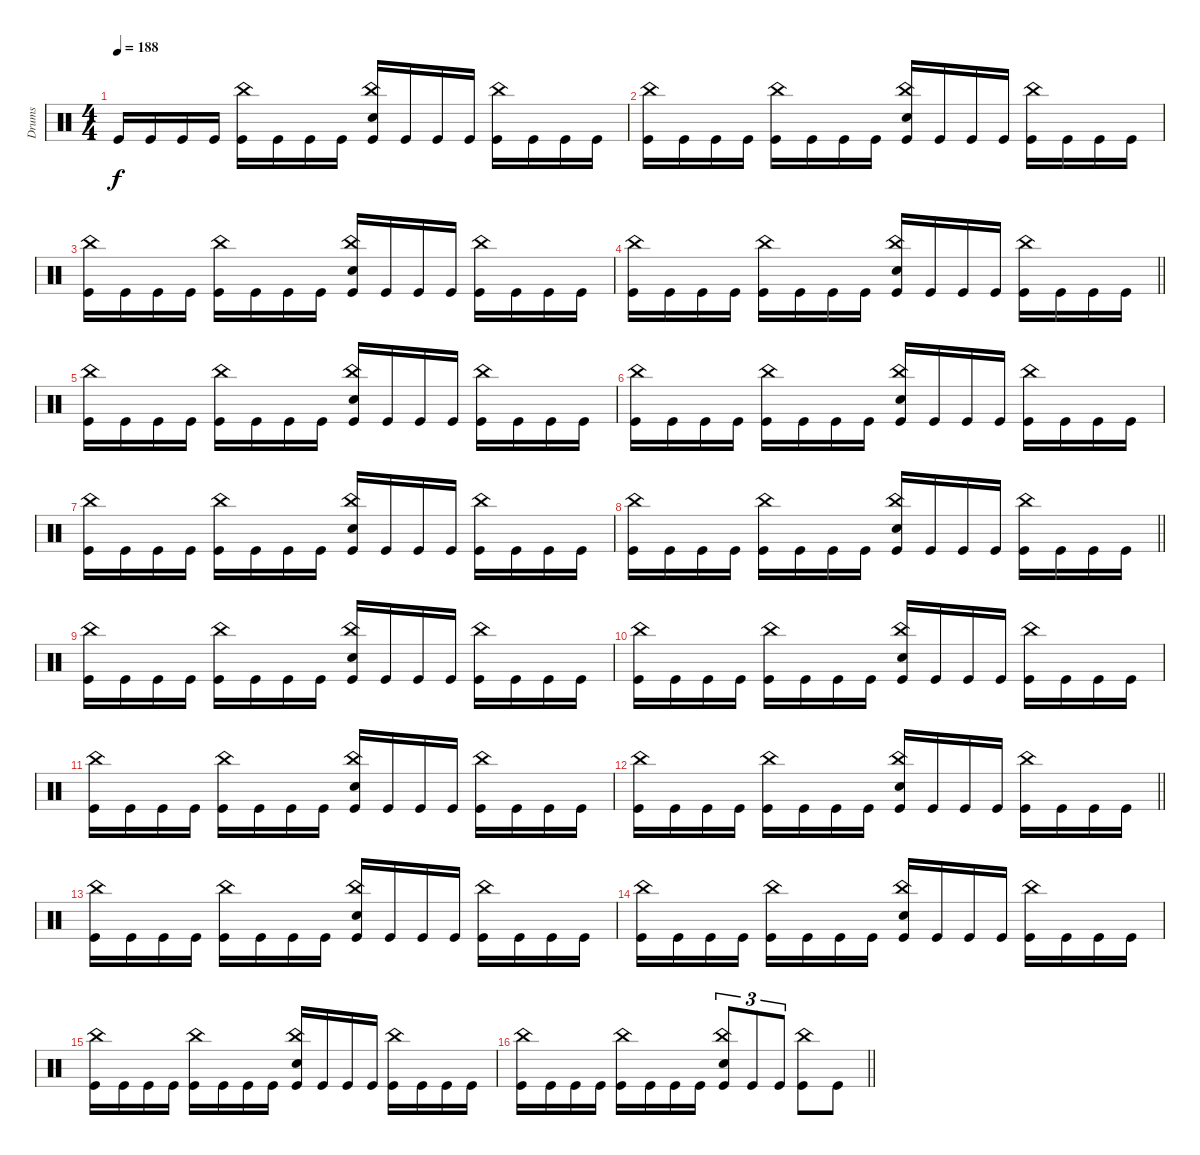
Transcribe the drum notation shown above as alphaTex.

\track ("Drums" "Drums") {instrument percussion}
\staff
\articulation defaults
\ts (4 4)
\section ("" "")
\tempo 188
\clef neutral
\ks c "Kick (hit)".16{dy f} "Kick (hit)".16 "Kick (hit)".16 "Kick (hit)".16
("China (hit)" "Kick (hit)").16 "Kick (hit)".16 "Kick (hit)".16 "Kick (hit)".16 ("China (hit)" "Electric Snare (hit)" "Kick (hit)").16 "Kick (hit)".16 "Kick (hit)".16 "Kick (hit)".16 ("China (hit)" "Kick (hit)").16 "Kick (hit)".16 "Kick (hit)".16 "Kick (hit)".16 |
("China (hit)" "Kick (hit)").16 "Kick (hit)".16 "Kick (hit)".16 "Kick (hit)".16 ("China (hit)" "Kick (hit)").16 "Kick (hit)".16 "Kick (hit)".16 "Kick (hit)".16 ("China (hit)" "Electric Snare (hit)" "Kick (hit)").16 "Kick (hit)".16 "Kick (hit)".16 "Kick (hit)".16 ("China (hit)" "Kick (hit)").16 "Kick (hit)".16 "Kick (hit)".16 "Kick (hit)".16 |
("China (hit)" "Kick (hit)").16 "Kick (hit)".16 "Kick (hit)".16 "Kick (hit)".16 ("China (hit)" "Kick (hit)").16 "Kick (hit)".16 "Kick (hit)".16 "Kick (hit)".16 ("China (hit)" "Electric Snare (hit)" "Kick (hit)").16 "Kick (hit)".16 "Kick (hit)".16 "Kick (hit)".16 ("China (hit)" "Kick (hit)").16 "Kick (hit)".16 "Kick (hit)".16 "Kick (hit)".16 |
\barLineRight lightlight
("China (hit)" "Kick (hit)").16 "Kick (hit)".16 "Kick (hit)".16 "Kick (hit)".16 ("China (hit)" "Kick (hit)").16 "Kick (hit)".16 "Kick (hit)".16 "Kick (hit)".16 ("China (hit)" "Electric Snare (hit)" "Kick (hit)").16 "Kick (hit)".16 "Kick (hit)".16 "Kick (hit)".16 ("China (hit)" "Kick (hit)").16 "Kick (hit)".16 "Kick (hit)".16 "Kick (hit)".16 |
("China (hit)" "Kick (hit)").16 "Kick (hit)".16 "Kick (hit)".16 "Kick (hit)".16 ("China (hit)" "Kick (hit)").16 "Kick (hit)".16 "Kick (hit)".16 "Kick (hit)".16 ("China (hit)" "Electric Snare (hit)" "Kick (hit)").16 "Kick (hit)".16 "Kick (hit)".16 "Kick (hit)".16 ("China (hit)" "Kick (hit)").16 "Kick (hit)".16 "Kick (hit)".16 "Kick (hit)".16 |
("China (hit)" "Kick (hit)").16 "Kick (hit)".16 "Kick (hit)".16 "Kick (hit)".16 ("China (hit)" "Kick (hit)").16 "Kick (hit)".16 "Kick (hit)".16 "Kick (hit)".16 ("China (hit)" "Electric Snare (hit)" "Kick (hit)").16 "Kick (hit)".16 "Kick (hit)".16 "Kick (hit)".16 ("China (hit)" "Kick (hit)").16 "Kick (hit)".16 "Kick (hit)".16 "Kick (hit)".16 |
("China (hit)" "Kick (hit)").16 "Kick (hit)".16 "Kick (hit)".16 "Kick (hit)".16 ("China (hit)" "Kick (hit)").16 "Kick (hit)".16 "Kick (hit)".16 "Kick (hit)".16 ("China (hit)" "Electric Snare (hit)" "Kick (hit)").16 "Kick (hit)".16 "Kick (hit)".16 "Kick (hit)".16 ("China (hit)" "Kick (hit)").16 "Kick (hit)".16 "Kick (hit)".16 "Kick (hit)".16 |
\barLineRight lightlight
("China (hit)" "Kick (hit)").16 "Kick (hit)".16 "Kick (hit)".16 "Kick (hit)".16 ("China (hit)" "Kick (hit)").16 "Kick (hit)".16 "Kick (hit)".16 "Kick (hit)".16 ("China (hit)" "Electric Snare (hit)" "Kick (hit)").16 "Kick (hit)".16 "Kick (hit)".16 "Kick (hit)".16 ("China (hit)" "Kick (hit)").16 "Kick (hit)".16 "Kick (hit)".16 "Kick (hit)".16 |
("China (hit)" "Kick (hit)").16 "Kick (hit)".16 "Kick (hit)".16 "Kick (hit)".16 ("China (hit)" "Kick (hit)").16 "Kick (hit)".16 "Kick (hit)".16 "Kick (hit)".16 ("China (hit)" "Electric Snare (hit)" "Kick (hit)").16 "Kick (hit)".16 "Kick (hit)".16 "Kick (hit)".16 ("China (hit)" "Kick (hit)").16 "Kick (hit)".16 "Kick (hit)".16 "Kick (hit)".16 |
("China (hit)" "Kick (hit)").16 "Kick (hit)".16 "Kick (hit)".16 "Kick (hit)".16 ("China (hit)" "Kick (hit)").16 "Kick (hit)".16 "Kick (hit)".16 "Kick (hit)".16 ("China (hit)" "Electric Snare (hit)" "Kick (hit)").16 "Kick (hit)".16 "Kick (hit)".16 "Kick (hit)".16 ("China (hit)" "Kick (hit)").16 "Kick (hit)".16 "Kick (hit)".16 "Kick (hit)".16 |
("China (hit)" "Kick (hit)").16 "Kick (hit)".16 "Kick (hit)".16 "Kick (hit)".16 ("China (hit)" "Kick (hit)").16 "Kick (hit)".16 "Kick (hit)".16 "Kick (hit)".16 ("China (hit)" "Electric Snare (hit)" "Kick (hit)").16 "Kick (hit)".16 "Kick (hit)".16 "Kick (hit)".16 ("China (hit)" "Kick (hit)").16 "Kick (hit)".16 "Kick (hit)".16 "Kick (hit)".16 |
\barLineRight lightlight
("China (hit)" "Kick (hit)").16 "Kick (hit)".16 "Kick (hit)".16 "Kick (hit)".16 ("China (hit)" "Kick (hit)").16 "Kick (hit)".16 "Kick (hit)".16 "Kick (hit)".16 ("China (hit)" "Electric Snare (hit)" "Kick (hit)").16 "Kick (hit)".16 "Kick (hit)".16 "Kick (hit)".16 ("China (hit)" "Kick (hit)").16 "Kick (hit)".16 "Kick (hit)".16 "Kick (hit)".16 |
("China (hit)" "Kick (hit)").16 "Kick (hit)".16 "Kick (hit)".16 "Kick (hit)".16 ("China (hit)" "Kick (hit)").16 "Kick (hit)".16 "Kick (hit)".16 "Kick (hit)".16 ("China (hit)" "Electric Snare (hit)" "Kick (hit)").16 "Kick (hit)".16 "Kick (hit)".16 "Kick (hit)".16 ("China (hit)" "Kick (hit)").16 "Kick (hit)".16 "Kick (hit)".16 "Kick (hit)".16 |
("China (hit)" "Kick (hit)").16 "Kick (hit)".16 "Kick (hit)".16 "Kick (hit)".16 ("China (hit)" "Kick (hit)").16 "Kick (hit)".16 "Kick (hit)".16 "Kick (hit)".16 ("China (hit)" "Electric Snare (hit)" "Kick (hit)").16 "Kick (hit)".16 "Kick (hit)".16 "Kick (hit)".16 ("China (hit)" "Kick (hit)").16 "Kick (hit)".16 "Kick (hit)".16 "Kick (hit)".16 |
("China (hit)" "Kick (hit)").16 "Kick (hit)".16 "Kick (hit)".16 "Kick (hit)".16 ("China (hit)" "Kick (hit)").16 "Kick (hit)".16 "Kick (hit)".16 "Kick (hit)".16 ("China (hit)" "Electric Snare (hit)" "Kick (hit)").16 "Kick (hit)".16 "Kick (hit)".16 "Kick (hit)".16 ("China (hit)" "Kick (hit)").16 "Kick (hit)".16 "Kick (hit)".16 "Kick (hit)".16 |
\barLineRight lightlight
("China (hit)" "Kick (hit)").16 "Kick (hit)".16 "Kick (hit)".16 "Kick (hit)".16 ("China (hit)" "Kick (hit)").16 "Kick (hit)".16 "Kick (hit)".16 "Kick (hit)".16 ("China (hit)" "Electric Snare (hit)" "Kick (hit)").8{tu (3 2)} "Kick (hit)".8{tu (3 2)} "Kick (hit)".8{tu (3 2)} ("China (hit)" "Kick (hit)").8 "Kick (hit)".8
